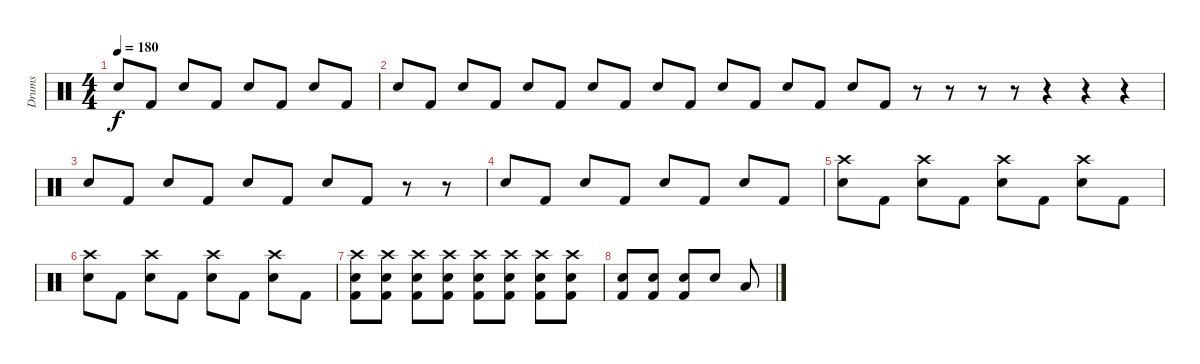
\track ("Drums" "Drums") {instrument percussion}
\staff {score}
\articulation defaults
\ts (4 4)
\tempo 180
\clef neutral
\ks c "Electric Snare (hit)".8{dy f} "Kick (hit) 2".8 "Electric Snare (hit)".8 "Kick (hit) 2".8 "Electric Snare (hit)".8 "Kick (hit) 2".8 "Electric Snare (hit)".8 "Kick (hit) 2".8
|
"Electric Snare (hit)".8 "Kick (hit) 2".8 "Electric Snare (hit)".8 "Kick (hit) 2".8 "Electric Snare (hit)".8 "Kick (hit) 2".8 "Electric Snare (hit)".8 "Kick (hit) 2".8 "Electric Snare (hit)".8 "Kick (hit) 2".8 "Electric Snare (hit)".8 "Kick (hit) 2".8 "Electric Snare (hit)".8 "Kick (hit) 2".8 "Electric Snare (hit)".8 "Kick (hit) 2".8 r.8 r.8 r.8 r.8 r.4 r.4 r.4 |
"Electric Snare (hit)".8 "Kick (hit) 2".8 "Electric Snare (hit)".8 "Kick (hit) 2".8 "Electric Snare (hit)".8 "Kick (hit) 2".8 "Electric Snare (hit)".8 "Kick (hit) 2".8 r.8 r.8 |
"Electric Snare (hit)".8 "Kick (hit) 2".8 "Electric Snare (hit)".8 "Kick (hit) 2".8 "Electric Snare (hit)".8 "Kick (hit) 2".8 "Electric Snare (hit)".8 "Kick (hit) 2".8 |
("Electric Snare (hit)" "Crash high (hit)").8 "Kick (hit) 2".8 ("Electric Snare (hit)" "Crash high (hit)").8 "Kick (hit) 2".8 ("Electric Snare (hit)" "Crash high (hit)").8 "Kick (hit) 2".8 ("Electric Snare (hit)" "Crash high (hit)").8 "Kick (hit) 2".8 |
("Electric Snare (hit)" "Crash high (hit)").8 "Kick (hit) 2".8 ("Electric Snare (hit)" "Crash high (hit)").8 "Kick (hit) 2".8 ("Electric Snare (hit)" "Crash high (hit)").8 "Kick (hit) 2".8 ("Electric Snare (hit)" "Crash high (hit)").8 "Kick (hit) 2".8 |
("Kick (hit) 2" "Electric Snare (hit)" "Crash high (hit)").8 ("Kick (hit) 2" "Electric Snare (hit)" "Crash high (hit)").8 ("Kick (hit) 2" "Electric Snare (hit)" "Crash high (hit)").8 ("Kick (hit) 2" "Electric Snare (hit)" "Crash high (hit)").8 ("Kick (hit) 2" "Electric Snare (hit)" "Crash high (hit)").8 ("Kick (hit) 2" "Electric Snare (hit)" "Crash high (hit)").8 ("Kick (hit) 2" "Electric Snare (hit)" "Crash high (hit)").8 ("Kick (hit) 2" "Electric Snare (hit)" "Crash high (hit)").8 |
("Electric Snare (hit)" "Kick (hit) 2").8 ("Electric Snare (hit)" "Kick (hit) 2").8 ("Electric Snare (hit)" "Kick (hit) 2").8 "Electric Snare (hit)".8 "Low Tom (hit)".8
